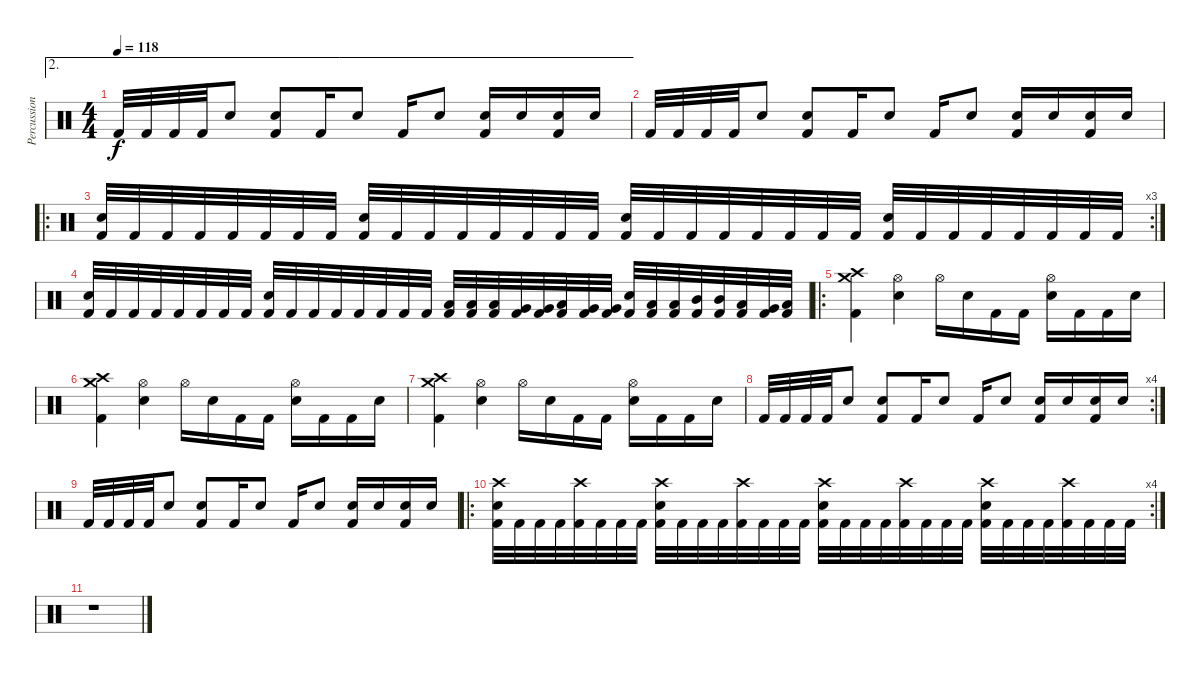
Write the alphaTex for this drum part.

\track ("Percussion" "Percussion") {instrument percussion}
\staff {score}
\articulation defaults
\ae 2
\ts (4 4)
\tempo 118
\clef neutral
\ks c "Kick (hit) 2".32{dy f} "Kick (hit) 2".32 "Kick (hit) 2".32 "Kick (hit) 2".32 "Snare (hit) 2".8
("Snare (hit) 2" "Kick (hit) 2").8 "Kick (hit) 2".16 "Snare (hit) 2".8 "Kick (hit) 2".16 "Snare (hit) 2".8 ("Snare (hit) 2" "Kick (hit) 2").16 "Snare (hit) 2".16 ("Snare (hit) 2" "Kick (hit) 2").16 "Snare (hit) 2".16 |
"Kick (hit) 2".32 "Kick (hit) 2".32 "Kick (hit) 2".32 "Kick (hit) 2".32 "Snare (hit) 2".8 ("Snare (hit) 2" "Kick (hit) 2").8 "Kick (hit) 2".16 "Snare (hit) 2".8 "Kick (hit) 2".16 "Snare (hit) 2".8 ("Snare (hit) 2" "Kick (hit) 2").16 "Snare (hit) 2".16 ("Snare (hit) 2" "Kick (hit) 2").16 "Snare (hit) 2".16 |
\ro
\rc 3
("Snare (hit) 2" "Kick (hit) 2").32 "Kick (hit) 2".32 "Kick (hit) 2".32 "Kick (hit) 2".32 "Kick (hit) 2".32 "Kick (hit) 2".32 "Kick (hit) 2".32 "Kick (hit) 2".32 ("Snare (hit) 2" "Kick (hit) 2").32 "Kick (hit) 2".32 "Kick (hit) 2".32 "Kick (hit) 2".32 "Kick (hit) 2".32 "Kick (hit) 2".32 "Kick (hit) 2".32 "Kick (hit) 2".32 ("Snare (hit) 2" "Kick (hit) 2").32 "Kick (hit) 2".32 "Kick (hit) 2".32 "Kick (hit) 2".32 "Kick (hit) 2".32 "Kick (hit) 2".32 "Kick (hit) 2".32 "Kick (hit) 2".32 ("Snare (hit) 2" "Kick (hit) 2").32 "Kick (hit) 2".32 "Kick (hit) 2".32 "Kick (hit) 2".32 "Kick (hit) 2".32 "Kick (hit) 2".32 "Kick (hit) 2".32 "Kick (hit) 2".32 |
("Snare (hit) 2" "Kick (hit) 2").32 "Kick (hit) 2".32 "Kick (hit) 2".32 "Kick (hit) 2".32 "Kick (hit) 2".32 "Kick (hit) 2".32 "Kick (hit) 2".32 "Kick (hit) 2".32 ("Snare (hit) 2" "Kick (hit) 2").32 "Kick (hit) 2".32 "Kick (hit) 2".32 "Kick (hit) 2".32 "Kick (hit) 2".32 "Kick (hit) 2".32 "Kick (hit) 2".32 "Kick (hit) 2".32 ("Low Floor Tom (hit)" "Kick (hit) 2").32 ("Low Floor Tom (hit)" "Kick (hit) 2").32 ("Low Floor Tom (hit)" "Kick (hit) 2").32 ("Very Low Tom (hit)" "Kick (hit) 2").32 ("Very Low Tom (hit)" "Kick (hit) 2").32 ("Low Tom (hit)" "Kick (hit) 2").32 ("Very Low Tom (hit)" "Kick (hit) 2").32 ("Very Low Tom (hit)" "Kick (hit) 2").32 ("Snare (hit) 2" "Kick (hit) 2").32 ("Low Tom (hit)" "Kick (hit) 2").32 ("Low Tom (hit)" "Kick (hit) 2").32 ("Mid Tom (hit)" "Kick (hit) 2").32 ("Mid Tom (hit)" "Kick (hit) 2").32 ("Low Tom (hit)" "Kick (hit) 2").32 ("Very Low Tom (hit)" "Kick (hit) 2").32 ("Low Floor Tom (hit)" "Kick (hit) 2").32 |
\ro
("Crash medium (hit)" "Crash high (hit)" "Kick (hit) 2").4 ("Hi-Hat (open)" "Snare (hit) 2").4 "Hi-Hat (open)".16 "Snare (hit) 2".16 "Kick (hit) 2".16 "Kick (hit) 2".16 ("Hi-Hat (open)" "Snare (hit) 2").16 "Kick (hit) 2".16 "Kick (hit) 2".16 "Snare (hit) 2".16 |
("Crash medium (hit)" "Crash high (hit)" "Kick (hit) 2").4 ("Hi-Hat (open)" "Snare (hit) 2").4 "Hi-Hat (open)".16 "Snare (hit) 2".16 "Kick (hit) 2".16 "Kick (hit) 2".16 ("Hi-Hat (open)" "Snare (hit) 2").16 "Kick (hit) 2".16 "Kick (hit) 2".16 "Snare (hit) 2".16 |
("Crash medium (hit)" "Crash high (hit)" "Kick (hit) 2").4 ("Hi-Hat (open)" "Snare (hit) 2").4 "Hi-Hat (open)".16 "Snare (hit) 2".16 "Kick (hit) 2".16 "Kick (hit) 2".16 ("Hi-Hat (open)" "Snare (hit) 2").16 "Kick (hit) 2".16 "Kick (hit) 2".16 "Snare (hit) 2".16 |
\rc 4 "Kick (hit) 2".32 "Kick (hit) 2".32 "Kick (hit) 2".32 "Kick (hit) 2".32 "Snare (hit) 2".8
("Snare (hit) 2" "Kick (hit) 2").8 "Kick (hit) 2".16 "Snare (hit) 2".8 "Kick (hit) 2".16 "Snare (hit) 2".8 ("Snare (hit) 2" "Kick (hit) 2").16 "Snare (hit) 2".16 ("Snare (hit) 2" "Kick (hit) 2").16 "Snare (hit) 2".16 |
"Kick (hit) 2".32 "Kick (hit) 2".32 "Kick (hit) 2".32 "Kick (hit) 2".32 "Snare (hit) 2".8 ("Snare (hit) 2" "Kick (hit) 2").8 "Kick (hit) 2".16 "Snare (hit) 2".8 "Kick (hit) 2".16 "Snare (hit) 2".8 ("Snare (hit) 2" "Kick (hit) 2").16 "Snare (hit) 2".16 ("Snare (hit) 2" "Kick (hit) 2").16 "Snare (hit) 2".16 |
\ro
\rc 4
("Crash high (hit)" "Snare (hit) 2" "Kick (hit) 2").32 "Kick (hit) 2".32 "Kick (hit) 2".32 "Kick (hit) 2".32 ("Crash high (hit)" "Kick (hit) 2").32 "Kick (hit) 2".32 "Kick (hit) 2".32 "Kick (hit) 2".32 ("Crash high (hit)" "Snare (hit) 2" "Kick (hit) 2").32 "Kick (hit) 2".32 "Kick (hit) 2".32 "Kick (hit) 2".32 ("Crash high (hit)" "Kick (hit) 2").32 "Kick (hit) 2".32 "Kick (hit) 2".32 "Kick (hit) 2".32 ("Crash high (hit)" "Snare (hit) 2" "Kick (hit) 2").32 "Kick (hit) 2".32 "Kick (hit) 2".32 "Kick (hit) 2".32 ("Crash high (hit)" "Kick (hit) 2").32 "Kick (hit) 2".32 "Kick (hit) 2".32 "Kick (hit) 2".32 ("Crash high (hit)" "Snare (hit) 2" "Kick (hit) 2").32 "Kick (hit) 2".32 "Kick (hit) 2".32 "Kick (hit) 2".32 ("Crash high (hit)" "Kick (hit) 2").32 "Kick (hit) 2".32 "Kick (hit) 2".32 "Kick (hit) 2".32 |
r.1
